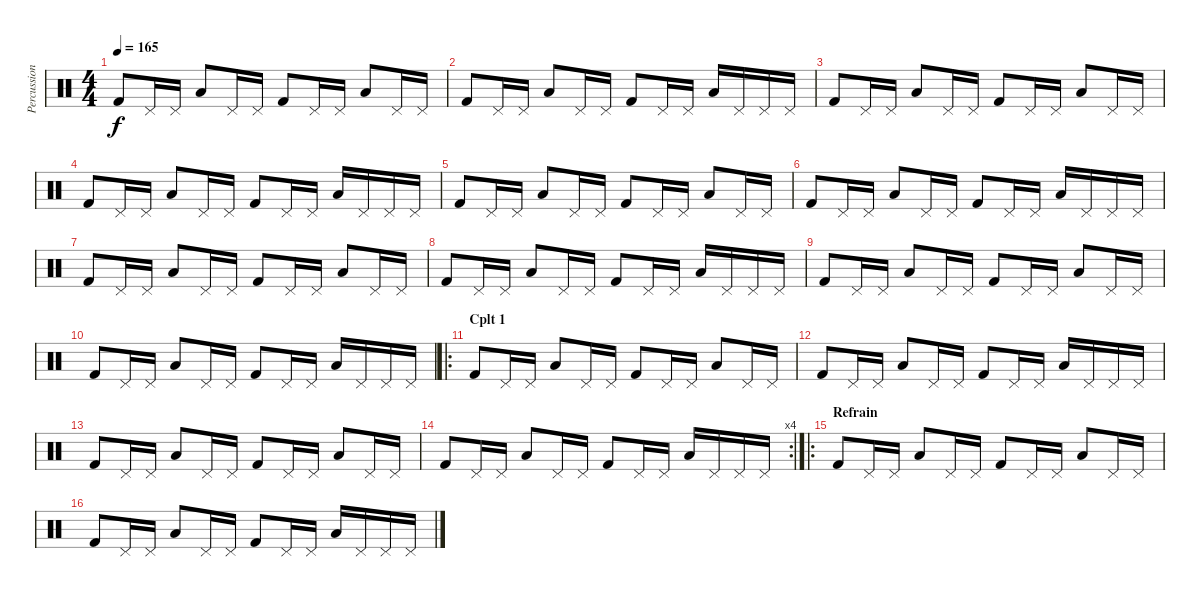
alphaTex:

\track ("Percussions" "Percussion") {instrument percussion}
\staff {score}
\articulation defaults
\ts (4 4)
\tempo 165
\clef neutral
\ks c "Kick (hit) 2".8{dy f} "Pedal Hi-Hat (hit)".16 "Pedal Hi-Hat (hit)".16 "Low Floor Tom (hit)".8 "Pedal Hi-Hat (hit)".16 "Pedal Hi-Hat (hit)".16 "Kick (hit) 2".8 "Pedal Hi-Hat (hit)".16 "Pedal Hi-Hat (hit)".16 "Low Floor Tom (hit)".8 "Pedal Hi-Hat (hit)".16 "Pedal Hi-Hat (hit)".16
|
"Kick (hit) 2".8 "Pedal Hi-Hat (hit)".16 "Pedal Hi-Hat (hit)".16 "Low Floor Tom (hit)".8 "Pedal Hi-Hat (hit)".16 "Pedal Hi-Hat (hit)".16 "Kick (hit) 2".8 "Pedal Hi-Hat (hit)".16 "Pedal Hi-Hat (hit)".16 "Low Floor Tom (hit)".16 "Pedal Hi-Hat (hit)".16 "Pedal Hi-Hat (hit)".16 "Pedal Hi-Hat (hit)".16 |
"Kick (hit) 2".8 "Pedal Hi-Hat (hit)".16 "Pedal Hi-Hat (hit)".16 "Low Floor Tom (hit)".8 "Pedal Hi-Hat (hit)".16 "Pedal Hi-Hat (hit)".16 "Kick (hit) 2".8 "Pedal Hi-Hat (hit)".16 "Pedal Hi-Hat (hit)".16 "Low Floor Tom (hit)".8 "Pedal Hi-Hat (hit)".16 "Pedal Hi-Hat (hit)".16 |
"Kick (hit) 2".8 "Pedal Hi-Hat (hit)".16 "Pedal Hi-Hat (hit)".16 "Low Floor Tom (hit)".8 "Pedal Hi-Hat (hit)".16 "Pedal Hi-Hat (hit)".16 "Kick (hit) 2".8 "Pedal Hi-Hat (hit)".16 "Pedal Hi-Hat (hit)".16 "Low Floor Tom (hit)".16 "Pedal Hi-Hat (hit)".16 "Pedal Hi-Hat (hit)".16 "Pedal Hi-Hat (hit)".16 |
"Kick (hit) 2".8 "Pedal Hi-Hat (hit)".16 "Pedal Hi-Hat (hit)".16 "Low Floor Tom (hit)".8 "Pedal Hi-Hat (hit)".16 "Pedal Hi-Hat (hit)".16 "Kick (hit) 2".8 "Pedal Hi-Hat (hit)".16 "Pedal Hi-Hat (hit)".16 "Low Floor Tom (hit)".8 "Pedal Hi-Hat (hit)".16 "Pedal Hi-Hat (hit)".16 |
"Kick (hit) 2".8 "Pedal Hi-Hat (hit)".16 "Pedal Hi-Hat (hit)".16 "Low Floor Tom (hit)".8 "Pedal Hi-Hat (hit)".16 "Pedal Hi-Hat (hit)".16 "Kick (hit) 2".8 "Pedal Hi-Hat (hit)".16 "Pedal Hi-Hat (hit)".16 "Low Floor Tom (hit)".16 "Pedal Hi-Hat (hit)".16 "Pedal Hi-Hat (hit)".16 "Pedal Hi-Hat (hit)".16 |
"Kick (hit) 2".8 "Pedal Hi-Hat (hit)".16 "Pedal Hi-Hat (hit)".16 "Low Floor Tom (hit)".8 "Pedal Hi-Hat (hit)".16 "Pedal Hi-Hat (hit)".16 "Kick (hit) 2".8 "Pedal Hi-Hat (hit)".16 "Pedal Hi-Hat (hit)".16 "Low Floor Tom (hit)".8 "Pedal Hi-Hat (hit)".16 "Pedal Hi-Hat (hit)".16 |
"Kick (hit) 2".8 "Pedal Hi-Hat (hit)".16 "Pedal Hi-Hat (hit)".16 "Low Floor Tom (hit)".8 "Pedal Hi-Hat (hit)".16 "Pedal Hi-Hat (hit)".16 "Kick (hit) 2".8 "Pedal Hi-Hat (hit)".16 "Pedal Hi-Hat (hit)".16 "Low Floor Tom (hit)".16 "Pedal Hi-Hat (hit)".16 "Pedal Hi-Hat (hit)".16 "Pedal Hi-Hat (hit)".16 |
"Kick (hit) 2".8 "Pedal Hi-Hat (hit)".16 "Pedal Hi-Hat (hit)".16 "Low Floor Tom (hit)".8 "Pedal Hi-Hat (hit)".16 "Pedal Hi-Hat (hit)".16 "Kick (hit) 2".8 "Pedal Hi-Hat (hit)".16 "Pedal Hi-Hat (hit)".16 "Low Floor Tom (hit)".8 "Pedal Hi-Hat (hit)".16 "Pedal Hi-Hat (hit)".16 |
"Kick (hit) 2".8 "Pedal Hi-Hat (hit)".16 "Pedal Hi-Hat (hit)".16 "Low Floor Tom (hit)".8 "Pedal Hi-Hat (hit)".16 "Pedal Hi-Hat (hit)".16 "Kick (hit) 2".8 "Pedal Hi-Hat (hit)".16 "Pedal Hi-Hat (hit)".16 "Low Floor Tom (hit)".16 "Pedal Hi-Hat (hit)".16 "Pedal Hi-Hat (hit)".16 "Pedal Hi-Hat (hit)".16 |
\ro
\section ("" "Cplt 1")
"Kick (hit) 2".8 "Pedal Hi-Hat (hit)".16 "Pedal Hi-Hat (hit)".16 "Low Floor Tom (hit)".8 "Pedal Hi-Hat (hit)".16 "Pedal Hi-Hat (hit)".16 "Kick (hit) 2".8 "Pedal Hi-Hat (hit)".16 "Pedal Hi-Hat (hit)".16 "Low Floor Tom (hit)".8 "Pedal Hi-Hat (hit)".16 "Pedal Hi-Hat (hit)".16 |
"Kick (hit) 2".8 "Pedal Hi-Hat (hit)".16 "Pedal Hi-Hat (hit)".16 "Low Floor Tom (hit)".8 "Pedal Hi-Hat (hit)".16 "Pedal Hi-Hat (hit)".16 "Kick (hit) 2".8 "Pedal Hi-Hat (hit)".16 "Pedal Hi-Hat (hit)".16 "Low Floor Tom (hit)".16 "Pedal Hi-Hat (hit)".16 "Pedal Hi-Hat (hit)".16 "Pedal Hi-Hat (hit)".16 |
"Kick (hit) 2".8 "Pedal Hi-Hat (hit)".16 "Pedal Hi-Hat (hit)".16 "Low Floor Tom (hit)".8 "Pedal Hi-Hat (hit)".16 "Pedal Hi-Hat (hit)".16 "Kick (hit) 2".8 "Pedal Hi-Hat (hit)".16 "Pedal Hi-Hat (hit)".16 "Low Floor Tom (hit)".8 "Pedal Hi-Hat (hit)".16 "Pedal Hi-Hat (hit)".16 |
\rc 4 "Kick (hit) 2".8 "Pedal Hi-Hat (hit)".16 "Pedal Hi-Hat (hit)".16 "Low Floor Tom (hit)".8 "Pedal Hi-Hat (hit)".16 "Pedal Hi-Hat (hit)".16 "Kick (hit) 2".8 "Pedal Hi-Hat (hit)".16 "Pedal Hi-Hat (hit)".16 "Low Floor Tom (hit)".16 "Pedal Hi-Hat (hit)".16 "Pedal Hi-Hat (hit)".16 "Pedal Hi-Hat (hit)".16
|
\ro
\section ("" "Refrain")
"Kick (hit) 2".8 "Pedal Hi-Hat (hit)".16 "Pedal Hi-Hat (hit)".16 "Low Floor Tom (hit)".8 "Pedal Hi-Hat (hit)".16 "Pedal Hi-Hat (hit)".16 "Kick (hit) 2".8 "Pedal Hi-Hat (hit)".16 "Pedal Hi-Hat (hit)".16 "Low Floor Tom (hit)".8 "Pedal Hi-Hat (hit)".16 "Pedal Hi-Hat (hit)".16 |
"Kick (hit) 2".8 "Pedal Hi-Hat (hit)".16 "Pedal Hi-Hat (hit)".16 "Low Floor Tom (hit)".8 "Pedal Hi-Hat (hit)".16 "Pedal Hi-Hat (hit)".16 "Kick (hit) 2".8 "Pedal Hi-Hat (hit)".16 "Pedal Hi-Hat (hit)".16 "Low Floor Tom (hit)".16 "Pedal Hi-Hat (hit)".16 "Pedal Hi-Hat (hit)".16 "Pedal Hi-Hat (hit)".16
